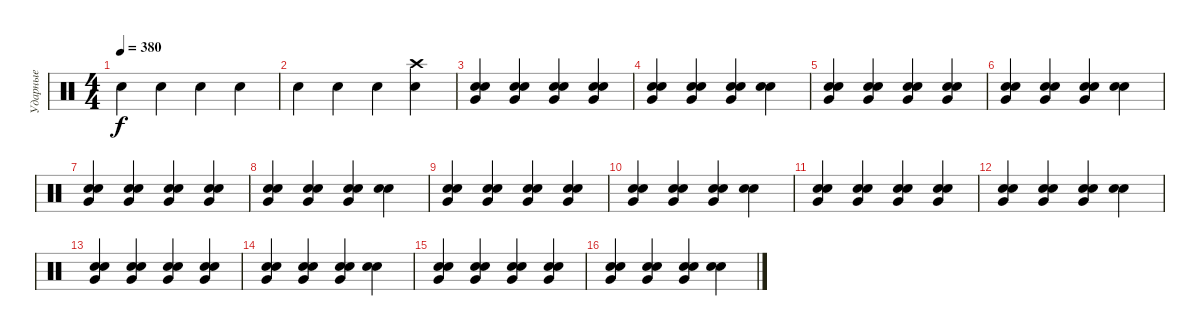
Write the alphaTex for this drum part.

\track ("Ударные" "Ударные") {instrument percussion}
\staff {score}
\articulation defaults
\ts (4 4)
\tempo 380
\clef neutral
\ks c "Electric Snare (hit)".4{dy f} "Electric Snare (hit)".4 "Electric Snare (hit)".4 "Electric Snare (hit)".4
|
"Electric Snare (hit)".4 "Electric Snare (hit)".4 "Electric Snare (hit)".4 ("Electric Snare (hit)" "Crash high (hit)").4 |
("Electric Snare (hit)" "Electric Snare (hit)" "Very Low Tom (hit)").4 ("Electric Snare (hit)" "Electric Snare (hit)" "Very Low Tom (hit)").4 ("Electric Snare (hit)" "Electric Snare (hit)" "Very Low Tom (hit)").4 ("Electric Snare (hit)" "Electric Snare (hit)" "Very Low Tom (hit)").4 |
("Electric Snare (hit)" "Electric Snare (hit)" "Very Low Tom (hit)").4 ("Electric Snare (hit)" "Electric Snare (hit)" "Very Low Tom (hit)").4 ("Electric Snare (hit)" "Electric Snare (hit)" "Very Low Tom (hit)").4 ("Electric Snare (hit)" "Electric Snare (hit)").4 |
("Electric Snare (hit)" "Electric Snare (hit)" "Very Low Tom (hit)").4 ("Electric Snare (hit)" "Electric Snare (hit)" "Very Low Tom (hit)").4 ("Electric Snare (hit)" "Electric Snare (hit)" "Very Low Tom (hit)").4 ("Electric Snare (hit)" "Electric Snare (hit)" "Very Low Tom (hit)").4 |
("Electric Snare (hit)" "Electric Snare (hit)" "Very Low Tom (hit)").4 ("Electric Snare (hit)" "Electric Snare (hit)" "Very Low Tom (hit)").4 ("Electric Snare (hit)" "Electric Snare (hit)" "Very Low Tom (hit)").4 ("Electric Snare (hit)" "Electric Snare (hit)").4 |
("Electric Snare (hit)" "Electric Snare (hit)" "Very Low Tom (hit)").4 ("Electric Snare (hit)" "Electric Snare (hit)" "Very Low Tom (hit)").4 ("Electric Snare (hit)" "Electric Snare (hit)" "Very Low Tom (hit)").4 ("Electric Snare (hit)" "Electric Snare (hit)" "Very Low Tom (hit)").4 |
("Electric Snare (hit)" "Electric Snare (hit)" "Very Low Tom (hit)").4 ("Electric Snare (hit)" "Electric Snare (hit)" "Very Low Tom (hit)").4 ("Electric Snare (hit)" "Electric Snare (hit)" "Very Low Tom (hit)").4 ("Electric Snare (hit)" "Electric Snare (hit)").4 |
("Electric Snare (hit)" "Electric Snare (hit)" "Very Low Tom (hit)").4 ("Electric Snare (hit)" "Electric Snare (hit)" "Very Low Tom (hit)").4 ("Electric Snare (hit)" "Electric Snare (hit)" "Very Low Tom (hit)").4 ("Electric Snare (hit)" "Electric Snare (hit)" "Very Low Tom (hit)").4 |
("Electric Snare (hit)" "Electric Snare (hit)" "Very Low Tom (hit)").4 ("Electric Snare (hit)" "Electric Snare (hit)" "Very Low Tom (hit)").4 ("Electric Snare (hit)" "Electric Snare (hit)" "Very Low Tom (hit)").4 ("Electric Snare (hit)" "Electric Snare (hit)").4 |
("Electric Snare (hit)" "Electric Snare (hit)" "Very Low Tom (hit)").4 ("Electric Snare (hit)" "Electric Snare (hit)" "Very Low Tom (hit)").4 ("Electric Snare (hit)" "Electric Snare (hit)" "Very Low Tom (hit)").4 ("Electric Snare (hit)" "Electric Snare (hit)" "Very Low Tom (hit)").4 |
("Electric Snare (hit)" "Electric Snare (hit)" "Very Low Tom (hit)").4 ("Electric Snare (hit)" "Electric Snare (hit)" "Very Low Tom (hit)").4 ("Electric Snare (hit)" "Electric Snare (hit)" "Very Low Tom (hit)").4 ("Electric Snare (hit)" "Electric Snare (hit)").4 |
("Electric Snare (hit)" "Electric Snare (hit)" "Very Low Tom (hit)").4 ("Electric Snare (hit)" "Electric Snare (hit)" "Very Low Tom (hit)").4 ("Electric Snare (hit)" "Electric Snare (hit)" "Very Low Tom (hit)").4 ("Electric Snare (hit)" "Electric Snare (hit)" "Very Low Tom (hit)").4 |
("Electric Snare (hit)" "Electric Snare (hit)" "Very Low Tom (hit)").4 ("Electric Snare (hit)" "Electric Snare (hit)" "Very Low Tom (hit)").4 ("Electric Snare (hit)" "Electric Snare (hit)" "Very Low Tom (hit)").4 ("Electric Snare (hit)" "Electric Snare (hit)").4 |
("Electric Snare (hit)" "Electric Snare (hit)" "Very Low Tom (hit)").4 ("Electric Snare (hit)" "Electric Snare (hit)" "Very Low Tom (hit)").4 ("Electric Snare (hit)" "Electric Snare (hit)" "Very Low Tom (hit)").4 ("Electric Snare (hit)" "Electric Snare (hit)" "Very Low Tom (hit)").4 |
("Electric Snare (hit)" "Electric Snare (hit)" "Very Low Tom (hit)").4 ("Electric Snare (hit)" "Electric Snare (hit)" "Very Low Tom (hit)").4 ("Electric Snare (hit)" "Electric Snare (hit)" "Very Low Tom (hit)").4 ("Electric Snare (hit)" "Electric Snare (hit)").4
